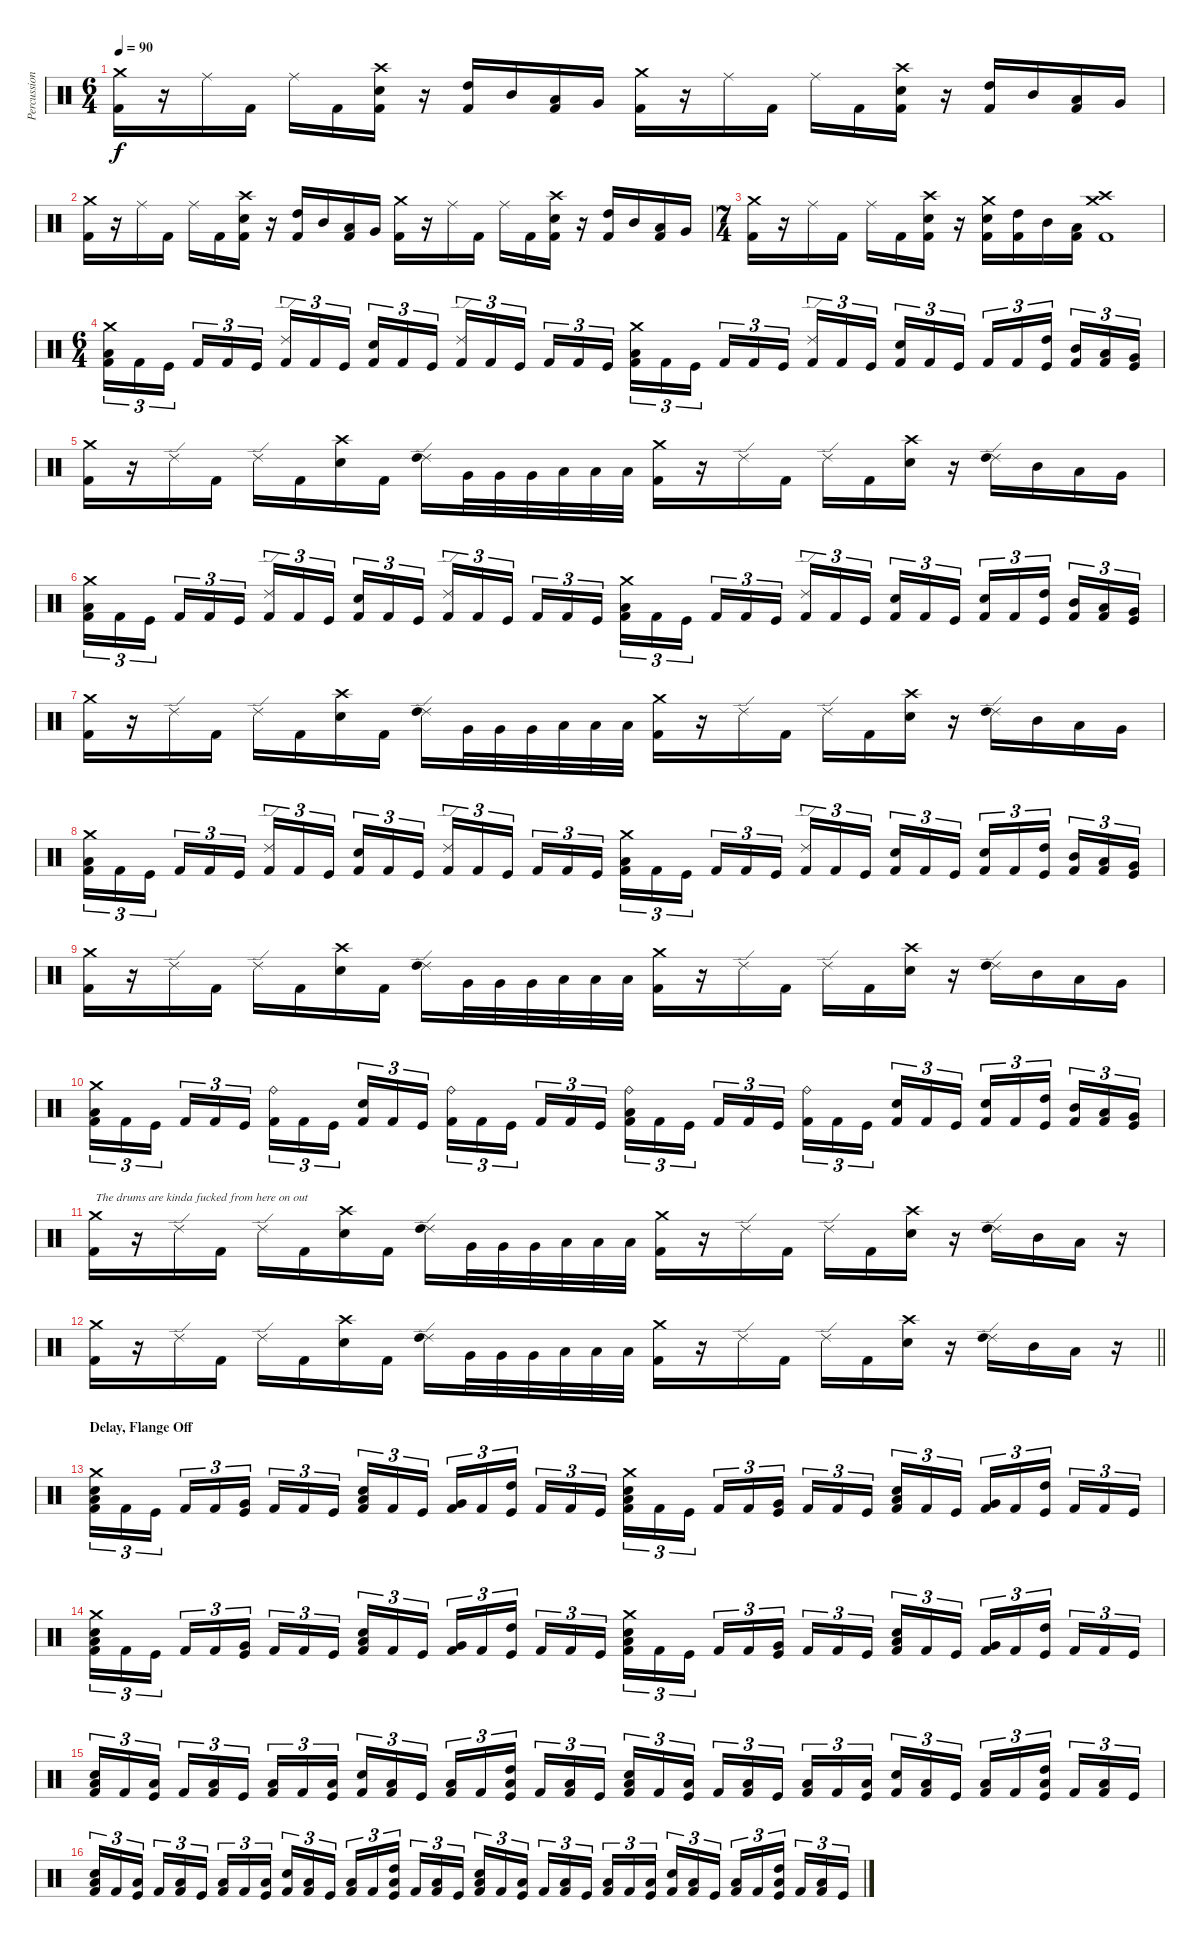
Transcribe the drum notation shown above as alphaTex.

\track ("Percussion" "Percussion") {instrument percussion}
\staff {score}
\articulation defaults
\ts (6 4)
\tempo 90
\clef neutral
\ks c
("Crash medium (hit)" "Kick (hit) 2").16{dy f} r.16 "Ride (middle)".16 "Kick (hit) 2".16 "Ride (middle)".16 "Kick (hit) 2".16 ("Crash high (hit)" "Electric Snare (hit)" "Kick (hit) 2").16 r.16 ("High Tom (hit)" "Kick (hit) 2").16 "Mid Tom (hit)".16 ("Low Tom (hit)" "Kick (hit) 2").16 "Very Low Tom (hit)".16 ("Crash medium (hit)" "Kick (hit) 2").16 r.16 "Ride (middle)".16 "Kick (hit) 2".16 "Ride (middle)".16 "Kick (hit) 2".16 ("Crash high (hit)" "Electric Snare (hit)" "Kick (hit) 2").16 r.16 ("High Tom (hit)" "Kick (hit) 2").16 "Mid Tom (hit)".16 ("Low Tom (hit)" "Kick (hit) 2").16 "Very Low Tom (hit)".16 |
("Crash medium (hit)" "Kick (hit) 2").16 r.16 "Ride (middle)".16 "Kick (hit) 2".16 "Ride (middle)".16 "Kick (hit) 2".16 ("Crash high (hit)" "Electric Snare (hit)" "Kick (hit) 2").16 r.16 ("High Tom (hit)" "Kick (hit) 2").16 "Mid Tom (hit)".16 ("Low Tom (hit)" "Kick (hit) 2").16 "Very Low Tom (hit)".16 ("Crash medium (hit)" "Kick (hit) 2").16 r.16 "Ride (middle)".16 "Kick (hit) 2".16 "Ride (middle)".16 "Kick (hit) 2".16 ("Crash high (hit)" "Electric Snare (hit)" "Kick (hit) 2").16 r.16 ("High Tom (hit)" "Kick (hit) 2").16 "Mid Tom (hit)".16 ("Low Tom (hit)" "Kick (hit) 2").16 "Very Low Tom (hit)".16 |
\ts (7 4)
("Crash medium (hit)" "Kick (hit) 2").16 r.16 "Ride (middle)".16 "Kick (hit) 2".16 "Ride (middle)".16 "Kick (hit) 2".16 ("Crash high (hit)" "Electric Snare (hit)" "Kick (hit) 2").16 r.16 ("Crash medium (hit)" "Electric Snare (hit)" "Kick (hit) 2").16 ("High Tom (hit)" "Kick (hit) 2").16 "Mid Tom (hit)".16 ("Low Tom (hit)" "Kick (hit) 2").16 ("Crash medium (hit)" "Crash high (hit)" "Kick (hit) 2").1 |
\ts (6 4)
("Crash medium (hit)" "Low Floor Tom (hit)" "Kick (hit) 2").16{tu (3 2)} "Kick (hit) 2".16{tu (3 2)} "Kick (hit)".16{tu (3 2) beam splitsecondary} "Kick (hit) 2".16{tu (3 2)} "Kick (hit) 2".16{tu (3 2)} "Kick (hit)".16{tu (3 2) beam splitsecondary} ("Ride (edge) 2" "Kick (hit) 2").16{tu (3 2)} "Kick (hit) 2".16{tu (3 2)} "Kick (hit)".16{tu (3 2) beam splitsecondary} ("Electric Snare (hit)" "Kick (hit) 2").16{tu (3 2)} "Kick (hit) 2".16{tu (3 2)} "Kick (hit)".16{tu (3 2) beam splitsecondary} ("Ride (edge) 2" "Kick (hit) 2").16{tu (3 2)} "Kick (hit) 2".16{tu (3 2)} "Kick (hit)".16{tu (3 2) beam splitsecondary} "Kick (hit) 2".16{tu (3 2)} "Kick (hit) 2".16{tu (3 2)} "Kick (hit)".16{tu (3 2)} ("Crash medium (hit)" "Low Floor Tom (hit)" "Kick (hit) 2").16{tu (3 2)} "Kick (hit) 2".16{tu (3 2)} "Kick (hit)".16{tu (3 2) beam splitsecondary} "Kick (hit) 2".16{tu (3 2)} "Kick (hit) 2".16{tu (3 2)} "Kick (hit)".16{tu (3 2) beam splitsecondary} ("Ride (edge) 2" "Kick (hit) 2").16{tu (3 2)} "Kick (hit) 2".16{tu (3 2)} "Kick (hit)".16{tu (3 2) beam splitsecondary} ("Electric Snare (hit)" "Kick (hit) 2").16{tu (3 2)} "Kick (hit) 2".16{tu (3 2)} "Kick (hit)".16{tu (3 2) beam splitsecondary} "Kick (hit) 2".16{tu (3 2)} "Kick (hit) 2".16{tu (3 2)} ("High Tom (hit)" "Kick (hit)").16{tu (3 2) beam splitsecondary} ("Mid Tom (hit)" "Kick (hit) 2").16{tu (3 2)} ("Low Tom (hit)" "Kick (hit) 2").16{tu (3 2)} ("Very Low Tom (hit)" "Kick (hit)").16{tu (3 2)} |
("Crash medium (hit)" "Kick (hit) 2").16 r.16 "Ride (edge) 2".16 "Kick (hit) 2".16 "Ride (edge) 2".16 "Kick (hit) 2".16 ("Crash high (hit)" "Electric Snare (hit)").16 "Kick (hit) 2".16 ("Ride (edge) 2" "High Tom (hit)").16 "Very Low Tom (hit)".32 "Very Low Tom (hit)".32 "Very Low Tom (hit)".32 "Low Floor Tom (hit)".32 "Low Floor Tom (hit)".32 "Low Floor Tom (hit)".32 ("Crash medium (hit)" "Kick (hit) 2").16 r.16 "Ride (edge) 2".16 "Kick (hit) 2".16 "Ride (edge) 2".16 "Kick (hit) 2".16 ("Crash high (hit)" "Electric Snare (hit)").16 r.16 ("Ride (edge) 2" "High Tom (hit)").16 "Mid Tom (hit)".16 "Low Tom (hit)".16 "Very Low Tom (hit)".16 |
("Crash medium (hit)" "Low Floor Tom (hit)" "Kick (hit) 2").16{tu (3 2)} "Kick (hit) 2".16{tu (3 2)} "Kick (hit)".16{tu (3 2) beam splitsecondary} "Kick (hit) 2".16{tu (3 2)} "Kick (hit) 2".16{tu (3 2)} "Kick (hit)".16{tu (3 2) beam splitsecondary} ("Ride (edge) 2" "Kick (hit) 2").16{tu (3 2)} "Kick (hit) 2".16{tu (3 2)} "Kick (hit)".16{tu (3 2) beam splitsecondary} ("Electric Snare (hit)" "Kick (hit) 2").16{tu (3 2)} "Kick (hit) 2".16{tu (3 2)} "Kick (hit)".16{tu (3 2) beam splitsecondary} ("Ride (edge) 2" "Kick (hit) 2").16{tu (3 2)} "Kick (hit) 2".16{tu (3 2)} "Kick (hit)".16{tu (3 2) beam splitsecondary} "Kick (hit) 2".16{tu (3 2)} "Kick (hit) 2".16{tu (3 2)} "Kick (hit)".16{tu (3 2)} ("Crash medium (hit)" "Low Floor Tom (hit)" "Kick (hit) 2").16{tu (3 2)} "Kick (hit) 2".16{tu (3 2)} "Kick (hit)".16{tu (3 2) beam splitsecondary} "Kick (hit) 2".16{tu (3 2)} "Kick (hit) 2".16{tu (3 2)} "Kick (hit)".16{tu (3 2) beam splitsecondary} ("Ride (edge) 2" "Kick (hit) 2").16{tu (3 2)} "Kick (hit) 2".16{tu (3 2)} "Kick (hit)".16{tu (3 2) beam splitsecondary} ("Electric Snare (hit)" "Kick (hit) 2").16{tu (3 2)} "Kick (hit) 2".16{tu (3 2)} "Kick (hit)".16{tu (3 2) beam splitsecondary} ("Electric Snare (hit)" "Kick (hit) 2").16{tu (3 2)} "Kick (hit) 2".16{tu (3 2)} ("High Tom (hit)" "Kick (hit)").16{tu (3 2) beam splitsecondary} ("Mid Tom (hit)" "Kick (hit) 2").16{tu (3 2)} ("Low Tom (hit)" "Kick (hit) 2").16{tu (3 2)} ("Very Low Tom (hit)" "Kick (hit)").16{tu (3 2)} |
("Crash medium (hit)" "Kick (hit) 2").16 r.16 "Ride (edge) 2".16 "Kick (hit) 2".16 "Ride (edge) 2".16 "Kick (hit) 2".16 ("Crash high (hit)" "Electric Snare (hit)").16 "Kick (hit) 2".16 ("Ride (edge) 2" "High Tom (hit)").16 "Very Low Tom (hit)".32 "Very Low Tom (hit)".32 "Very Low Tom (hit)".32 "Low Floor Tom (hit)".32 "Low Floor Tom (hit)".32 "Low Floor Tom (hit)".32 ("Crash medium (hit)" "Kick (hit) 2").16 r.16 "Ride (edge) 2".16 "Kick (hit) 2".16 "Ride (edge) 2".16 "Kick (hit) 2".16 ("Crash high (hit)" "Electric Snare (hit)").16 r.16 ("Ride (edge) 2" "High Tom (hit)").16 "Mid Tom (hit)".16 "Low Tom (hit)".16 "Very Low Tom (hit)".16 |
("Crash medium (hit)" "Low Floor Tom (hit)" "Kick (hit) 2").16{tu (3 2)} "Kick (hit) 2".16{tu (3 2)} "Kick (hit)".16{tu (3 2) beam splitsecondary} "Kick (hit) 2".16{tu (3 2)} "Kick (hit) 2".16{tu (3 2)} "Kick (hit)".16{tu (3 2) beam splitsecondary} ("Ride (edge) 2" "Kick (hit) 2").16{tu (3 2)} "Kick (hit) 2".16{tu (3 2)} "Kick (hit)".16{tu (3 2) beam splitsecondary} ("Electric Snare (hit)" "Kick (hit) 2").16{tu (3 2)} "Kick (hit) 2".16{tu (3 2)} "Kick (hit)".16{tu (3 2) beam splitsecondary} ("Ride (edge) 2" "Kick (hit) 2").16{tu (3 2)} "Kick (hit) 2".16{tu (3 2)} "Kick (hit)".16{tu (3 2) beam splitsecondary} "Kick (hit) 2".16{tu (3 2)} "Kick (hit) 2".16{tu (3 2)} "Kick (hit)".16{tu (3 2)} ("Crash medium (hit)" "Low Floor Tom (hit)" "Kick (hit) 2").16{tu (3 2)} "Kick (hit) 2".16{tu (3 2)} "Kick (hit)".16{tu (3 2) beam splitsecondary} "Kick (hit) 2".16{tu (3 2)} "Kick (hit) 2".16{tu (3 2)} "Kick (hit)".16{tu (3 2) beam splitsecondary} ("Ride (edge) 2" "Kick (hit) 2").16{tu (3 2)} "Kick (hit) 2".16{tu (3 2)} "Kick (hit)".16{tu (3 2) beam splitsecondary} ("Electric Snare (hit)" "Kick (hit) 2").16{tu (3 2)} "Kick (hit) 2".16{tu (3 2)} "Kick (hit)".16{tu (3 2) beam splitsecondary} ("Electric Snare (hit)" "Kick (hit) 2").16{tu (3 2)} "Kick (hit) 2".16{tu (3 2)} ("High Tom (hit)" "Kick (hit)").16{tu (3 2) beam splitsecondary} ("Mid Tom (hit)" "Kick (hit) 2").16{tu (3 2)} ("Low Tom (hit)" "Kick (hit) 2").16{tu (3 2)} ("Very Low Tom (hit)" "Kick (hit)").16{tu (3 2)} |
("Crash medium (hit)" "Kick (hit) 2").16 r.16 "Ride (edge) 2".16 "Kick (hit) 2".16 "Ride (edge) 2".16 "Kick (hit) 2".16 ("Crash high (hit)" "Electric Snare (hit)").16 "Kick (hit) 2".16 ("Ride (edge) 2" "High Tom (hit)").16 "Very Low Tom (hit)".32 "Very Low Tom (hit)".32 "Very Low Tom (hit)".32 "Low Floor Tom (hit)".32 "Low Floor Tom (hit)".32 "Low Floor Tom (hit)".32 ("Crash medium (hit)" "Kick (hit) 2").16 r.16 "Ride (edge) 2".16 "Kick (hit) 2".16 "Ride (edge) 2".16 "Kick (hit) 2".16 ("Crash high (hit)" "Electric Snare (hit)").16 r.16 ("Ride (edge) 2" "High Tom (hit)").16 "Mid Tom (hit)".16 "Low Tom (hit)".16 "Very Low Tom (hit)".16 |
("Crash medium (hit)" "Low Floor Tom (hit)" "Kick (hit) 2").16{tu (3 2)} "Kick (hit) 2".16{tu (3 2)} "Kick (hit)".16{tu (3 2) beam splitsecondary} "Kick (hit) 2".16{tu (3 2)} "Kick (hit) 2".16{tu (3 2)} "Kick (hit)".16{tu (3 2) beam splitsecondary} ("Ride (bell)" "Kick (hit) 2").16{tu (3 2)} "Kick (hit) 2".16{tu (3 2)} "Kick (hit)".16{tu (3 2) beam splitsecondary} ("Electric Snare (hit)" "Kick (hit) 2").16{tu (3 2)} "Kick (hit) 2".16{tu (3 2)} "Kick (hit)".16{tu (3 2) beam splitsecondary} ("Ride (bell)" "Kick (hit) 2").16{tu (3 2)} "Kick (hit) 2".16{tu (3 2)} "Kick (hit)".16{tu (3 2) beam splitsecondary} "Kick (hit) 2".16{tu (3 2)} "Kick (hit) 2".16{tu (3 2)} "Kick (hit)".16{tu (3 2)} ("Ride (bell)" "Low Floor Tom (hit)" "Kick (hit) 2").16{tu (3 2)} "Kick (hit) 2".16{tu (3 2)} "Kick (hit)".16{tu (3 2) beam splitsecondary} "Kick (hit) 2".16{tu (3 2)} "Kick (hit) 2".16{tu (3 2)} "Kick (hit)".16{tu (3 2) beam splitsecondary} ("Ride (bell)" "Kick (hit) 2").16{tu (3 2)} "Kick (hit) 2".16{tu (3 2)} "Kick (hit)".16{tu (3 2) beam splitsecondary} ("Electric Snare (hit)" "Kick (hit) 2").16{tu (3 2)} "Kick (hit) 2".16{tu (3 2)} "Kick (hit)".16{tu (3 2) beam splitsecondary} ("Electric Snare (hit)" "Kick (hit) 2").16{tu (3 2)} "Kick (hit) 2".16{tu (3 2)} ("High Tom (hit)" "Kick (hit)").16{tu (3 2) beam splitsecondary} ("Mid Tom (hit)" "Kick (hit) 2").16{tu (3 2)} ("Low Tom (hit)" "Kick (hit) 2").16{tu (3 2)} ("Very Low Tom (hit)" "Kick (hit)").16{tu (3 2)} |
("Crash medium (hit)" "Kick (hit) 2").16{txt "The drums are kinda fucked from here on out"} r.16 "Ride (edge) 2".16 "Kick (hit) 2".16 "Ride (edge) 2".16 "Kick (hit) 2".16 ("Crash high (hit)" "Electric Snare (hit)").16 "Kick (hit) 2".16 ("Ride (edge) 2" "High Tom (hit)").16 "Very Low Tom (hit)".32 "Very Low Tom (hit)".32 "Very Low Tom (hit)".32 "Low Floor Tom (hit)".32 "Low Floor Tom (hit)".32 "Low Floor Tom (hit)".32 ("Crash medium (hit)" "Kick (hit) 2").16 r.16 "Ride (edge) 2".16 "Kick (hit) 2".16 "Ride (edge) 2".16 "Kick (hit) 2".16 ("Crash high (hit)" "Electric Snare (hit)").16 r.16 ("Ride (edge) 2" "High Tom (hit)").16 "Mid Tom (hit)".16 "Low Tom (hit)".16 r.16 |
\barLineRight lightlight
("Crash medium (hit)" "Kick (hit) 2").16 r.16 "Ride (edge) 2".16 "Kick (hit) 2".16 "Ride (edge) 2".16 "Kick (hit) 2".16 ("Crash high (hit)" "Electric Snare (hit)").16 "Kick (hit) 2".16 ("Ride (edge) 2" "High Tom (hit)").16 "Very Low Tom (hit)".32 "Very Low Tom (hit)".32 "Very Low Tom (hit)".32 "Low Floor Tom (hit)".32 "Low Floor Tom (hit)".32 "Low Floor Tom (hit)".32 ("Crash medium (hit)" "Kick (hit) 2").16 r.16 "Ride (edge) 2".16 "Kick (hit) 2".16 "Ride (edge) 2".16 "Kick (hit) 2".16 ("Crash high (hit)" "Electric Snare (hit)").16 r.16 ("Ride (edge) 2" "High Tom (hit)").16 "Mid Tom (hit)".16 "Low Tom (hit)".16 r.16 |
\section ("" "Delay, Flange Off")
("Crash medium (hit)" "Low Floor Tom (hit)" "Electric Snare (hit)" "Kick (hit) 2").16{tu (3 2)} "Kick (hit) 2".16{tu (3 2)} "Kick (hit)".16{tu (3 2) beam splitsecondary} "Kick (hit) 2".16{tu (3 2)} "Kick (hit) 2".16{tu (3 2)} ("Very Low Tom (hit)" "Kick (hit)").16{tu (3 2) beam splitsecondary} "Kick (hit) 2".16{tu (3 2)} "Kick (hit) 2".16{tu (3 2)} "Kick (hit)".16{tu (3 2) beam splitsecondary} ("Low Floor Tom (hit)" "Electric Snare (hit)" "Kick (hit) 2").16{tu (3 2)} "Kick (hit) 2".16{tu (3 2)} "Kick (hit)".16{tu (3 2) beam splitsecondary} ("Very Low Tom (hit)" "Kick (hit) 2").16{tu (3 2)} "Kick (hit) 2".16{tu (3 2)} ("High Tom (hit)" "Kick (hit)").16{tu (3 2) beam splitsecondary} "Kick (hit) 2".16{tu (3 2)} "Kick (hit) 2".16{tu (3 2)} "Kick (hit)".16{tu (3 2)} ("Crash medium (hit)" "Low Floor Tom (hit)" "Electric Snare (hit)" "Kick (hit) 2").16{tu (3 2)} "Kick (hit) 2".16{tu (3 2)} "Kick (hit)".16{tu (3 2) beam splitsecondary} "Kick (hit) 2".16{tu (3 2)} "Kick (hit) 2".16{tu (3 2)} ("Very Low Tom (hit)" "Kick (hit)").16{tu (3 2) beam splitsecondary} "Kick (hit) 2".16{tu (3 2)} "Kick (hit) 2".16{tu (3 2)} "Kick (hit)".16{tu (3 2) beam splitsecondary} ("Low Floor Tom (hit)" "Electric Snare (hit)" "Kick (hit) 2").16{tu (3 2)} "Kick (hit) 2".16{tu (3 2)} "Kick (hit)".16{tu (3 2) beam splitsecondary} ("Very Low Tom (hit)" "Kick (hit) 2").16{tu (3 2)} "Kick (hit) 2".16{tu (3 2)} ("High Tom (hit)" "Kick (hit)").16{tu (3 2) beam splitsecondary} "Kick (hit) 2".16{tu (3 2)} "Kick (hit) 2".16{tu (3 2)} "Kick (hit)".16{tu (3 2)} |
("Crash medium (hit)" "Low Floor Tom (hit)" "Electric Snare (hit)" "Kick (hit) 2").16{tu (3 2)} "Kick (hit) 2".16{tu (3 2)} "Kick (hit)".16{tu (3 2) beam splitsecondary} "Kick (hit) 2".16{tu (3 2)} "Kick (hit) 2".16{tu (3 2)} ("Very Low Tom (hit)" "Kick (hit)").16{tu (3 2) beam splitsecondary} "Kick (hit) 2".16{tu (3 2)} "Kick (hit) 2".16{tu (3 2)} "Kick (hit)".16{tu (3 2) beam splitsecondary} ("Low Floor Tom (hit)" "Electric Snare (hit)" "Kick (hit) 2").16{tu (3 2)} "Kick (hit) 2".16{tu (3 2)} "Kick (hit)".16{tu (3 2) beam splitsecondary} ("Very Low Tom (hit)" "Kick (hit) 2").16{tu (3 2)} "Kick (hit) 2".16{tu (3 2)} ("High Tom (hit)" "Kick (hit)").16{tu (3 2) beam splitsecondary} "Kick (hit) 2".16{tu (3 2)} "Kick (hit) 2".16{tu (3 2)} "Kick (hit)".16{tu (3 2)} ("Crash medium (hit)" "Low Floor Tom (hit)" "Electric Snare (hit)" "Kick (hit) 2").16{tu (3 2)} "Kick (hit) 2".16{tu (3 2)} "Kick (hit)".16{tu (3 2) beam splitsecondary} "Kick (hit) 2".16{tu (3 2)} "Kick (hit) 2".16{tu (3 2)} ("Very Low Tom (hit)" "Kick (hit)").16{tu (3 2) beam splitsecondary} "Kick (hit) 2".16{tu (3 2)} "Kick (hit) 2".16{tu (3 2)} "Kick (hit)".16{tu (3 2) beam splitsecondary} ("Low Floor Tom (hit)" "Electric Snare (hit)" "Kick (hit) 2").16{tu (3 2)} "Kick (hit) 2".16{tu (3 2)} "Kick (hit)".16{tu (3 2) beam splitsecondary} ("Very Low Tom (hit)" "Kick (hit) 2").16{tu (3 2)} "Kick (hit) 2".16{tu (3 2)} ("High Tom (hit)" "Kick (hit)").16{tu (3 2) beam splitsecondary} "Kick (hit) 2".16{tu (3 2)} "Kick (hit) 2".16{tu (3 2)} "Kick (hit)".16{tu (3 2)} |
("Low Floor Tom (hit)" "Electric Snare (hit)" "Kick (hit) 2").16{tu (3 2)} "Kick (hit) 2".16{tu (3 2)} ("Low Floor Tom (hit)" "Kick (hit)").16{tu (3 2) beam splitsecondary} "Kick (hit) 2".16{tu (3 2)} ("Low Floor Tom (hit)" "Kick (hit) 2").16{tu (3 2)} "Kick (hit)".16{tu (3 2) beam splitsecondary} ("Low Floor Tom (hit)" "Kick (hit) 2").16{tu (3 2)} "Kick (hit) 2".16{tu (3 2)} ("Low Floor Tom (hit)" "Kick (hit)").16{tu (3 2) beam splitsecondary} ("Electric Snare (hit)" "Kick (hit) 2").16{tu (3 2)} ("Low Floor Tom (hit)" "Kick (hit) 2").16{tu (3 2)} "Kick (hit)".16{tu (3 2) beam splitsecondary} ("Low Floor Tom (hit)" "Kick (hit) 2").16{tu (3 2)} "Kick (hit) 2".16{tu (3 2)} ("Low Floor Tom (hit)" "High Tom (hit)" "Kick (hit)").16{tu (3 2) beam splitsecondary} "Kick (hit) 2".16{tu (3 2)} ("Low Floor Tom (hit)" "Kick (hit) 2").16{tu (3 2)} "Kick (hit)".16{tu (3 2)} ("Low Floor Tom (hit)" "Electric Snare (hit)" "Kick (hit) 2").16{tu (3 2)} "Kick (hit) 2".16{tu (3 2)} ("Low Floor Tom (hit)" "Kick (hit)").16{tu (3 2) beam splitsecondary} "Kick (hit) 2".16{tu (3 2)} ("Low Floor Tom (hit)" "Kick (hit) 2").16{tu (3 2)} "Kick (hit)".16{tu (3 2) beam splitsecondary} ("Low Floor Tom (hit)" "Kick (hit) 2").16{tu (3 2)} "Kick (hit) 2".16{tu (3 2)} ("Low Floor Tom (hit)" "Kick (hit)").16{tu (3 2) beam splitsecondary} ("Electric Snare (hit)" "Kick (hit) 2").16{tu (3 2)} ("Low Floor Tom (hit)" "Kick (hit) 2").16{tu (3 2)} "Kick (hit)".16{tu (3 2) beam splitsecondary} ("Low Floor Tom (hit)" "Kick (hit) 2").16{tu (3 2)} "Kick (hit) 2".16{tu (3 2)} ("Low Floor Tom (hit)" "High Tom (hit)" "Kick (hit)").16{tu (3 2) beam splitsecondary} "Kick (hit) 2".16{tu (3 2)} ("Low Floor Tom (hit)" "Kick (hit) 2").16{tu (3 2)} "Kick (hit)".16{tu (3 2)} |
("Low Floor Tom (hit)" "Electric Snare (hit)" "Kick (hit) 2").16{tu (3 2)} "Kick (hit) 2".16{tu (3 2)} ("Low Floor Tom (hit)" "Kick (hit)").16{tu (3 2) beam splitsecondary} "Kick (hit) 2".16{tu (3 2)} ("Low Floor Tom (hit)" "Kick (hit) 2").16{tu (3 2)} "Kick (hit)".16{tu (3 2) beam splitsecondary} ("Low Floor Tom (hit)" "Kick (hit) 2").16{tu (3 2)} "Kick (hit) 2".16{tu (3 2)} ("Low Floor Tom (hit)" "Kick (hit)").16{tu (3 2) beam splitsecondary} ("Electric Snare (hit)" "Kick (hit) 2").16{tu (3 2)} ("Low Floor Tom (hit)" "Kick (hit) 2").16{tu (3 2)} "Kick (hit)".16{tu (3 2) beam splitsecondary} ("Low Floor Tom (hit)" "Kick (hit) 2").16{tu (3 2)} "Kick (hit) 2".16{tu (3 2)} ("Low Floor Tom (hit)" "High Tom (hit)" "Kick (hit)").16{tu (3 2) beam splitsecondary} "Kick (hit) 2".16{tu (3 2)} ("Low Floor Tom (hit)" "Kick (hit) 2").16{tu (3 2)} "Kick (hit)".16{tu (3 2)} ("Low Floor Tom (hit)" "Electric Snare (hit)" "Kick (hit) 2").16{tu (3 2)} "Kick (hit) 2".16{tu (3 2)} ("Low Floor Tom (hit)" "Kick (hit)").16{tu (3 2) beam splitsecondary} "Kick (hit) 2".16{tu (3 2)} ("Low Floor Tom (hit)" "Kick (hit) 2").16{tu (3 2)} "Kick (hit)".16{tu (3 2) beam splitsecondary} ("Low Floor Tom (hit)" "Kick (hit) 2").16{tu (3 2)} "Kick (hit) 2".16{tu (3 2)} ("Low Floor Tom (hit)" "Kick (hit)").16{tu (3 2) beam splitsecondary} ("Electric Snare (hit)" "Kick (hit) 2").16{tu (3 2)} ("Low Floor Tom (hit)" "Kick (hit) 2").16{tu (3 2)} "Kick (hit)".16{tu (3 2) beam splitsecondary} ("Low Floor Tom (hit)" "Kick (hit) 2").16{tu (3 2)} "Kick (hit) 2".16{tu (3 2)} ("Low Floor Tom (hit)" "High Tom (hit)" "Kick (hit)").16{tu (3 2) beam splitsecondary} "Kick (hit) 2".16{tu (3 2)} ("Low Floor Tom (hit)" "Kick (hit) 2").16{tu (3 2)} "Kick (hit)".16{tu (3 2)}
